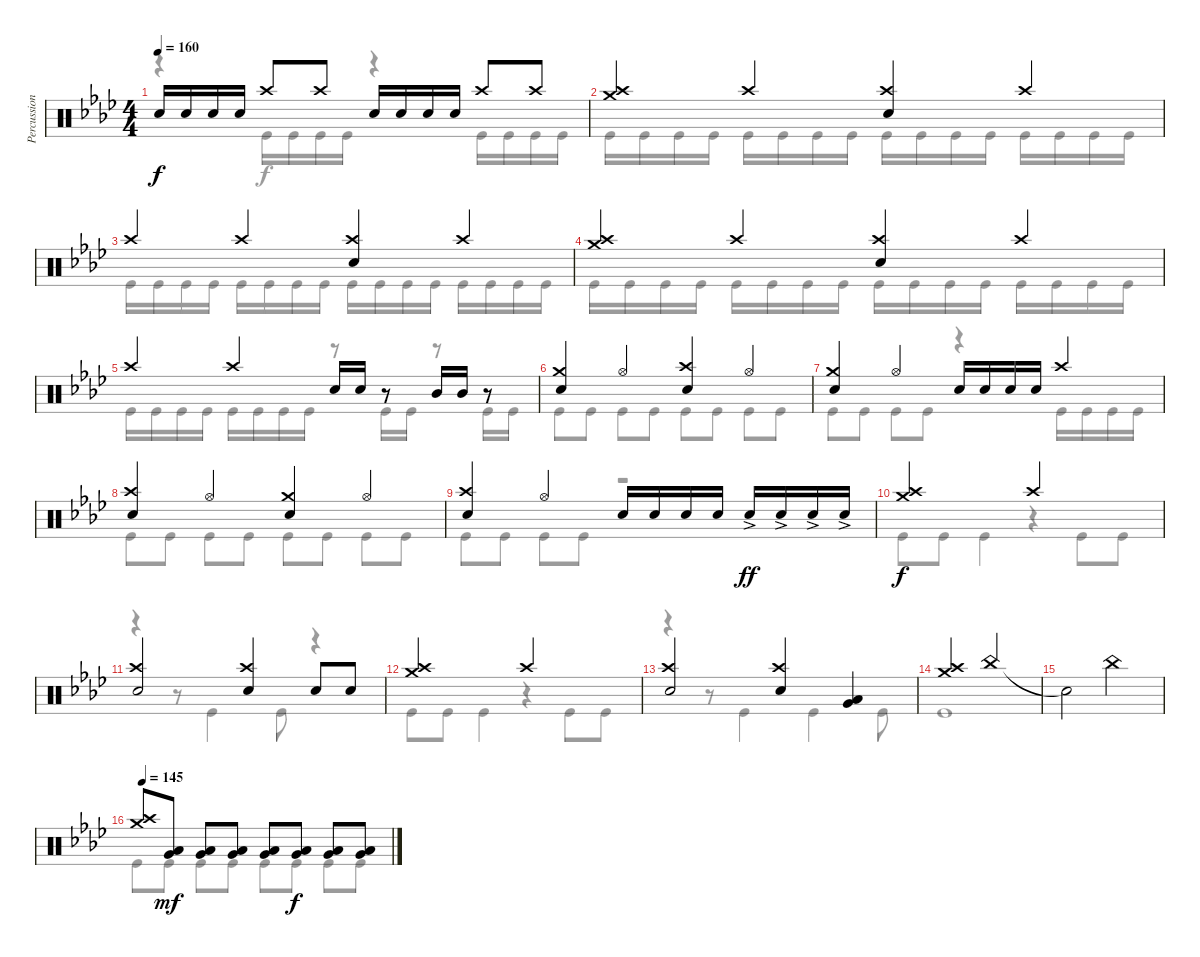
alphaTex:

\track ("Percussion" "Percussion") {instrument percussion}
\staff {score}
\articulation defaults
\voice
\ts (4 4)
\tempo 160
\clef neutral
\ks fminor "Electric Snare (hit)".16{dy f} "Electric Snare (hit)".16 "Electric Snare (hit)".16 "Electric Snare (hit)".16 "Crash high (hit)".8 "Crash high (hit)".8 "Electric Snare (hit)".16 "Electric Snare (hit)".16 "Electric Snare (hit)".16 "Electric Snare (hit)".16 "Crash high (hit)".8 "Crash high (hit)".8
|
("Crash medium (hit)" "Crash high (hit)").4 "Crash high (hit)".4 ("Crash high (hit)" "Electric Snare (hit)").4 "Crash high (hit)".4 |
"Crash high (hit)".4 "Crash high (hit)".4 ("Crash high (hit)" "Electric Snare (hit)").4 "Crash high (hit)".4 |
("Crash medium (hit)" "Crash high (hit)").4 "Crash high (hit)".4 ("Crash high (hit)" "Electric Snare (hit)").4 "Crash high (hit)".4 |
"Crash high (hit)".4 "Crash high (hit)".4 "Electric Snare (hit)".16 "Electric Snare (hit)".16 r.8 "Mid Tom (hit)".16 "Mid Tom (hit)".16 r.8 |
("Crash medium (hit)" "Electric Snare (hit)").4 "Hi-Hat (open)".4 ("Crash high (hit)" "Electric Snare (hit)").4 "Hi-Hat (open)".4 |
("Crash medium (hit)" "Electric Snare (hit)").4 "Hi-Hat (open)".4 "Electric Snare (hit)".16 "Electric Snare (hit)".16 "Electric Snare (hit)".16 "Electric Snare (hit)".16 "Crash high (hit)".4 |
("Crash high (hit)" "Electric Snare (hit)").4 "Hi-Hat (open)".4 ("Crash medium (hit)" "Electric Snare (hit)").4 "Hi-Hat (open)".4 |
("Crash high (hit)" "Electric Snare (hit)").4 "Hi-Hat (open)".4 "Electric Snare (hit)".16 "Electric Snare (hit)".16 "Electric Snare (hit)".16 "Electric Snare (hit)".16 "Electric Snare (hit)"{ac}.16{dy ff} "Electric Snare (hit)"{ac}.16 "Electric Snare (hit)"{ac}.16 "Electric Snare (hit)"{ac}.16 |
("Crash medium (hit)" "Crash high (hit)").2{dy f} "Crash high (hit)".2 |
("Crash high (hit)" "Electric Snare (hit)").2 ("Crash high (hit)" "Electric Snare (hit)").4 "Electric Snare (hit)".8 "Electric Snare (hit)".8 |
("Crash medium (hit)" "Crash high (hit)").2 "Crash high (hit)".2 |
("Crash high (hit)" "Electric Snare (hit)").2 ("Crash high (hit)" "Electric Snare (hit)").4 ("Low Tom (hit)" "Very Low Tom (hit)").4 |
("Crash medium (hit)" "Crash high (hit)").2 "China (hit)".2 |
"Snare (hit)"{t}.2 "China (hit)".2 |
\tempo 145
("Crash medium (hit)" "Crash high (hit)").8 ("Low Tom (hit)" "Very Low Tom (hit)").8{dy mf} ("Low Tom (hit)" "Very Low Tom (hit)").8 ("Low Tom (hit)" "Very Low Tom (hit)").8 ("Low Tom (hit)" "Very Low Tom (hit)").8 ("Low Tom (hit)" "Very Low Tom (hit)").8{dy f} ("Low Tom (hit)" "Very Low Tom (hit)").8 ("Low Tom (hit)" "Very Low Tom (hit)").8
\voice
\clef neutral
\ottava regular
\simile none
\ks fminor
r.4{dy f} "Kick (hit)".16 "Kick (hit)".16 "Kick (hit)".16 "Kick (hit)".16 r.4 "Kick (hit)".16 "Kick (hit)".16 "Kick (hit)".16 "Kick (hit)".16 |
"Kick (hit)".16 "Kick (hit)".16 "Kick (hit)".16 "Kick (hit)".16 "Kick (hit)".16 "Kick (hit)".16 "Kick (hit)".16 "Kick (hit)".16 "Kick (hit)".16 "Kick (hit)".16 "Kick (hit)".16 "Kick (hit)".16 "Kick (hit)".16 "Kick (hit)".16 "Kick (hit)".16 "Kick (hit)".16 |
"Kick (hit)".16 "Kick (hit)".16 "Kick (hit)".16 "Kick (hit)".16 "Kick (hit)".16 "Kick (hit)".16 "Kick (hit)".16 "Kick (hit)".16 "Kick (hit)".16 "Kick (hit)".16 "Kick (hit)".16 "Kick (hit)".16 "Kick (hit)".16 "Kick (hit)".16 "Kick (hit)".16 "Kick (hit)".16 |
"Kick (hit)".16 "Kick (hit)".16 "Kick (hit)".16 "Kick (hit)".16 "Kick (hit)".16 "Kick (hit)".16 "Kick (hit)".16 "Kick (hit)".16 "Kick (hit)".16 "Kick (hit)".16 "Kick (hit)".16 "Kick (hit)".16 "Kick (hit)".16 "Kick (hit)".16 "Kick (hit)".16 "Kick (hit)".16 |
"Kick (hit)".16 "Kick (hit)".16 "Kick (hit)".16 "Kick (hit)".16 "Kick (hit)".16 "Kick (hit)".16 "Kick (hit)".16 "Kick (hit)".16 r.8 "Kick (hit)".16 "Kick (hit)".16 r.8 "Kick (hit)".16 "Kick (hit)".16 |
"Kick (hit)".8 "Kick (hit)".8 "Kick (hit)".8 "Kick (hit)".8 "Kick (hit)".8 "Kick (hit)".8 "Kick (hit)".8 "Kick (hit)".8 |
"Kick (hit)".8 "Kick (hit)".8 "Kick (hit)".8 "Kick (hit)".8 r.4 "Kick (hit)".16 "Kick (hit)".16 "Kick (hit)".16 "Kick (hit)".16 |
"Kick (hit)".8 "Kick (hit)".8 "Kick (hit)".8 "Kick (hit)".8 "Kick (hit)".8 "Kick (hit)".8 "Kick (hit)".8 "Kick (hit)".8 |
"Kick (hit)".8 "Kick (hit)".8 "Kick (hit)".8 "Kick (hit)".8 r.2 |
"Kick (hit)".8 "Kick (hit)".8 "Kick (hit)".4 r.4 "Kick (hit)".8 "Kick (hit)".8 |
r.4 r.8 "Kick (hit)".4 "Kick (hit)".8 r.4 |
"Kick (hit)".8 "Kick (hit)".8 "Kick (hit)".4 r.4 "Kick (hit)".8 "Kick (hit)".8 |
r.4 r.8 "Kick (hit)".4 "Kick (hit)".4 "Kick (hit)".8 |
"Kick (hit)".1 |
|
"Kick (hit)".8 "Kick (hit)".8 "Kick (hit)".8 "Kick (hit)".8 "Kick (hit)".8 "Kick (hit)".8 "Kick (hit)".8 "Kick (hit)".8
